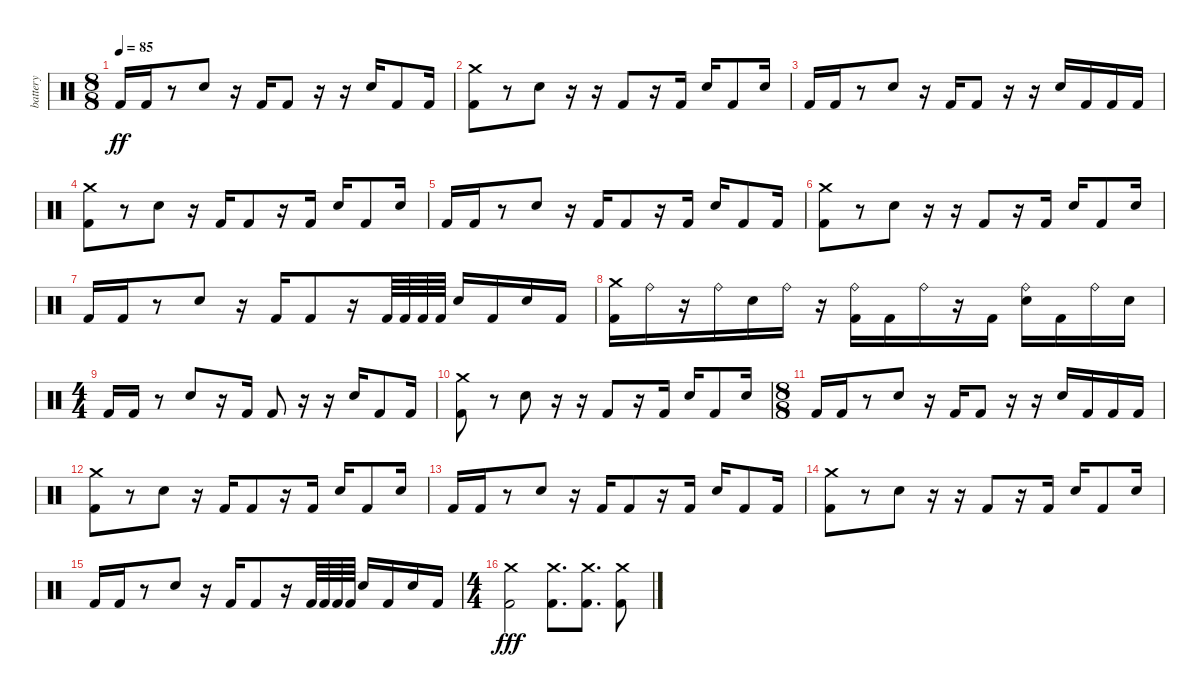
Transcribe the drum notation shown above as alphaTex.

\track ("battery" "battery") {instrument percussion}
\staff {score}
\articulation defaults
\ts (8 8)
\tempo 85
\clef neutral
\ks c "Kick (hit) 2".16{dy ff} "Kick (hit) 2".16
r.8 "Electric Snare (hit)".8 r.16 "Kick (hit) 2".16 "Kick (hit) 2".8 r.16 r.16 "Electric Snare (hit)".16 "Kick (hit) 2".8 "Kick (hit) 2".16 |
("Crash medium (hit)" "Kick (hit) 2").8 r.8 "Electric Snare (hit)".8 r.16 r.16 "Kick (hit) 2".8 r.16 "Kick (hit) 2".16 "Electric Snare (hit)".16 "Kick (hit) 2".8 "Electric Snare (hit)".16 |
"Kick (hit) 2".16 "Kick (hit) 2".16 r.8 "Electric Snare (hit)".8 r.16 "Kick (hit) 2".16 "Kick (hit) 2".8 r.16 r.16 "Electric Snare (hit)".16 "Kick (hit) 2".16 "Kick (hit) 2".16 "Kick (hit) 2".16 |
("Crash medium (hit)" "Kick (hit) 2").8 r.8 "Electric Snare (hit)".8 r.16 "Kick (hit) 2".16 "Kick (hit) 2".8 r.16 "Kick (hit) 2".16 "Electric Snare (hit)".16 "Kick (hit) 2".8 "Electric Snare (hit)".16 |
"Kick (hit) 2".16 "Kick (hit) 2".16 r.8 "Electric Snare (hit)".8 r.16 "Kick (hit) 2".16 "Kick (hit) 2".8 r.16 "Kick (hit) 2".16 "Electric Snare (hit)".16 "Kick (hit) 2".8 "Kick (hit) 2".16 |
("Crash medium (hit)" "Kick (hit) 2").8 r.8 "Electric Snare (hit)".8 r.16 r.16 "Kick (hit) 2".8 r.16 "Kick (hit) 2".16 "Electric Snare (hit)".16 "Kick (hit) 2".8 "Electric Snare (hit)".16 |
"Kick (hit) 2".16 "Kick (hit) 2".16 r.8 "Electric Snare (hit)".8 r.16 "Kick (hit) 2".16 "Kick (hit) 2".8 r.16 "Kick (hit) 2".64 "Kick (hit) 2".64 "Kick (hit) 2".64 "Kick (hit) 2".64 "Electric Snare (hit)".16 "Kick (hit) 2".16 "Electric Snare (hit)".16 "Kick (hit) 2".16 |
("Crash medium (hit)" "Kick (hit) 2").16 "Ride (bell)".16 r.16 "Ride (bell)".16 "Electric Snare (hit)".16 "Ride (bell)".16 r.16 ("Ride (bell)" "Kick (hit) 2").16 "Kick (hit) 2".16 "Ride (bell)".16 r.16 "Kick (hit) 2".16 ("Ride (bell)" "Electric Snare (hit)").16 "Kick (hit) 2".16 "Ride (bell)".16 "Electric Snare (hit)".16 |
\ts (4 4)
"Kick (hit) 2".16 "Kick (hit) 2".16 r.8 "Electric Snare (hit)".8 r.16 "Kick (hit) 2".16 "Kick (hit) 2".8 r.16 r.16 "Electric Snare (hit)".16 "Kick (hit) 2".8 "Kick (hit) 2".16 |
("Crash medium (hit)" "Kick (hit) 2").8 r.8 "Electric Snare (hit)".8 r.16 r.16 "Kick (hit) 2".8 r.16 "Kick (hit) 2".16 "Electric Snare (hit)".16 "Kick (hit) 2".8 "Electric Snare (hit)".16 |
\ts (8 8)
"Kick (hit) 2".16 "Kick (hit) 2".16 r.8 "Electric Snare (hit)".8 r.16 "Kick (hit) 2".16 "Kick (hit) 2".8 r.16 r.16 "Electric Snare (hit)".16 "Kick (hit) 2".16 "Kick (hit) 2".16 "Kick (hit) 2".16 |
("Crash medium (hit)" "Kick (hit) 2").8 r.8 "Electric Snare (hit)".8 r.16 "Kick (hit) 2".16 "Kick (hit) 2".8 r.16 "Kick (hit) 2".16 "Electric Snare (hit)".16 "Kick (hit) 2".8 "Electric Snare (hit)".16 |
"Kick (hit) 2".16 "Kick (hit) 2".16 r.8 "Electric Snare (hit)".8 r.16 "Kick (hit) 2".16 "Kick (hit) 2".8 r.16 "Kick (hit) 2".16 "Electric Snare (hit)".16 "Kick (hit) 2".8 "Kick (hit) 2".16 |
("Crash medium (hit)" "Kick (hit) 2").8 r.8 "Electric Snare (hit)".8 r.16 r.16 "Kick (hit) 2".8 r.16 "Kick (hit) 2".16 "Electric Snare (hit)".16 "Kick (hit) 2".8 "Electric Snare (hit)".16 |
"Kick (hit) 2".16 "Kick (hit) 2".16 r.8 "Electric Snare (hit)".8 r.16 "Kick (hit) 2".16 "Kick (hit) 2".8 r.16 "Kick (hit) 2".64 "Kick (hit) 2".64 "Kick (hit) 2".64 "Kick (hit) 2".64 "Electric Snare (hit)".16 "Kick (hit) 2".16 "Electric Snare (hit)".16 "Kick (hit) 2".16 |
\ts (4 4)
("Crash medium (hit)" "Kick (hit) 2").2{dy fff} ("Crash medium (hit)" "Kick (hit) 2").8{d} ("Crash medium (hit)" "Kick (hit) 2").8{d} ("Crash medium (hit)" "Kick (hit) 2").8
